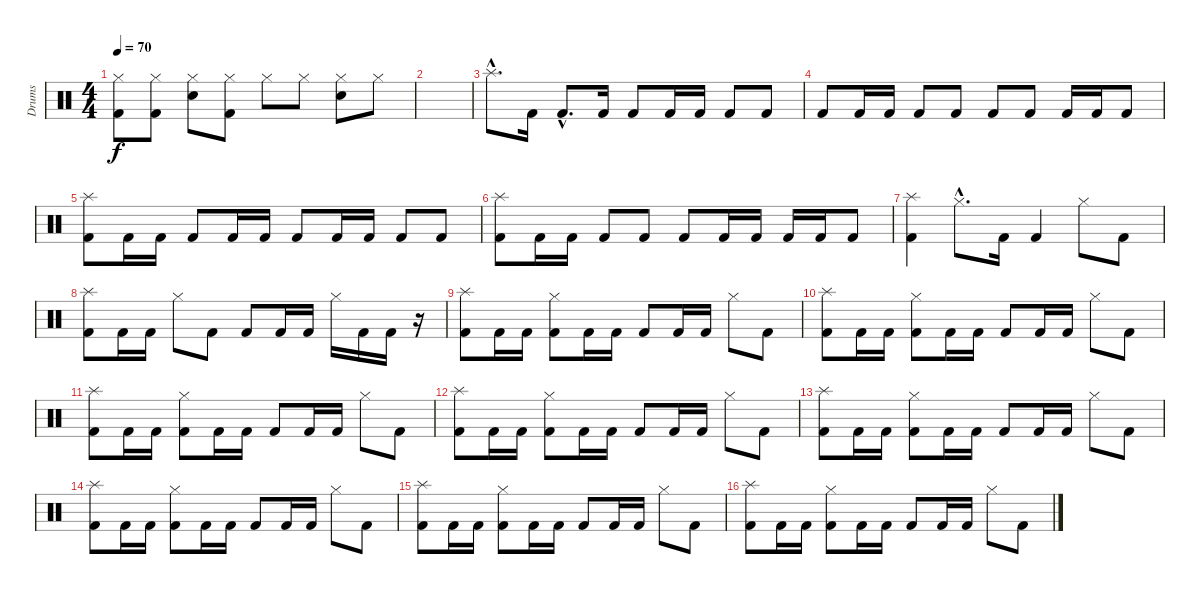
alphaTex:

\track ("Drums" "Drums") {instrument percussion}
\staff {score}
\articulation defaults
\ts (4 4)
\tempo 70
\clef neutral
\ks c
("Hi-Hat (closed)" "Kick (hit) 2").8{dy f volume 8} ("Hi-Hat (closed)" "Kick (hit) 2").8 ("Hi-Hat (closed)" "Snare (hit) 2").8 ("Hi-Hat (closed)" "Kick (hit) 2").8 "Hi-Hat (closed)".8 "Hi-Hat (closed)".8 ("Hi-Hat (closed)" "Snare (hit) 2").8 "Hi-Hat (closed)".8 |
|
"Splash (hit)"{hac}.8{d volume 16} "Kick (hit) 2".16 "Kick (hit) 2"{hac}.8{d} "Kick (hit) 2".16 "Kick (hit) 2".8 "Kick (hit) 2".16 "Kick (hit) 2".16 "Kick (hit) 2".8 "Kick (hit) 2".8 |
"Kick (hit) 2".8 "Kick (hit) 2".16 "Kick (hit) 2".16 "Kick (hit) 2".8 "Kick (hit) 2".8 "Kick (hit) 2".8 "Kick (hit) 2".8 "Kick (hit) 2".16 "Kick (hit) 2".16 "Kick (hit) 2".8 |
("Splash (hit)" "Kick (hit) 2").8 "Kick (hit) 2".16 "Kick (hit) 2".16 "Kick (hit) 2".8 "Kick (hit) 2".16 "Kick (hit) 2".16 "Kick (hit) 2".8 "Kick (hit) 2".16 "Kick (hit) 2".16 "Kick (hit) 2".8 "Kick (hit) 2".8 |
("Splash (hit)" "Kick (hit) 2").8 "Kick (hit) 2".16 "Kick (hit) 2".16 "Kick (hit) 2".8 "Kick (hit) 2".8 "Kick (hit) 2".8 "Kick (hit) 2".16 "Kick (hit) 2".16 "Kick (hit) 2".16 "Kick (hit) 2".16 "Kick (hit) 2".8 |
("Splash (hit)" "Kick (hit) 2").4 "Hi-Hat (closed)"{hac}.8{d} "Kick (hit) 2".16 "Kick (hit) 2".4 "Hi-Hat (closed)".8 "Kick (hit) 2".8 |
("Splash (hit)" "Kick (hit) 2").8 "Kick (hit) 2".16 "Kick (hit) 2".16 "Hi-Hat (closed)".8 "Kick (hit) 2".8 "Kick (hit) 2".8 "Kick (hit) 2".16 "Kick (hit) 2".16 "Hi-Hat (closed)".16 "Kick (hit) 2".16 "Kick (hit) 2".16 r.16 |
("Splash (hit)" "Kick (hit) 2").8 "Kick (hit) 2".16 "Kick (hit) 2".16 ("Hi-Hat (closed)" "Kick (hit) 2").8 "Kick (hit) 2".16 "Kick (hit) 2".16 "Kick (hit) 2".8 "Kick (hit) 2".16 "Kick (hit) 2".16 "Hi-Hat (closed)".8 "Kick (hit) 2".8 |
("Splash (hit)" "Kick (hit) 2").8 "Kick (hit) 2".16 "Kick (hit) 2".16 ("Hi-Hat (closed)" "Kick (hit) 2").8 "Kick (hit) 2".16 "Kick (hit) 2".16 "Kick (hit) 2".8 "Kick (hit) 2".16 "Kick (hit) 2".16 "Hi-Hat (closed)".8 "Kick (hit) 2".8 |
("Splash (hit)" "Kick (hit) 2").8 "Kick (hit) 2".16 "Kick (hit) 2".16 ("Hi-Hat (closed)" "Kick (hit) 2").8 "Kick (hit) 2".16 "Kick (hit) 2".16 "Kick (hit) 2".8 "Kick (hit) 2".16 "Kick (hit) 2".16 "Hi-Hat (closed)".8 "Kick (hit) 2".8 |
("Splash (hit)" "Kick (hit) 2").8 "Kick (hit) 2".16 "Kick (hit) 2".16 ("Hi-Hat (closed)" "Kick (hit) 2").8 "Kick (hit) 2".16 "Kick (hit) 2".16 "Kick (hit) 2".8 "Kick (hit) 2".16 "Kick (hit) 2".16 "Hi-Hat (closed)".8 "Kick (hit) 2".8 |
("Splash (hit)" "Kick (hit) 2").8 "Kick (hit) 2".16 "Kick (hit) 2".16 ("Hi-Hat (closed)" "Kick (hit) 2").8 "Kick (hit) 2".16 "Kick (hit) 2".16 "Kick (hit) 2".8 "Kick (hit) 2".16 "Kick (hit) 2".16 "Hi-Hat (closed)".8 "Kick (hit) 2".8 |
("Splash (hit)" "Kick (hit) 2").8 "Kick (hit) 2".16 "Kick (hit) 2".16 ("Hi-Hat (closed)" "Kick (hit) 2").8 "Kick (hit) 2".16 "Kick (hit) 2".16 "Kick (hit) 2".8 "Kick (hit) 2".16 "Kick (hit) 2".16 "Hi-Hat (closed)".8 "Kick (hit) 2".8 |
("Splash (hit)" "Kick (hit) 2").8 "Kick (hit) 2".16 "Kick (hit) 2".16 ("Hi-Hat (closed)" "Kick (hit) 2").8 "Kick (hit) 2".16 "Kick (hit) 2".16 "Kick (hit) 2".8 "Kick (hit) 2".16 "Kick (hit) 2".16 "Hi-Hat (closed)".8 "Kick (hit) 2".8 |
("Splash (hit)" "Kick (hit) 2").8 "Kick (hit) 2".16 "Kick (hit) 2".16 ("Hi-Hat (closed)" "Kick (hit) 2").8 "Kick (hit) 2".16 "Kick (hit) 2".16 "Kick (hit) 2".8 "Kick (hit) 2".16 "Kick (hit) 2".16 "Hi-Hat (closed)".8 "Kick (hit) 2".8
